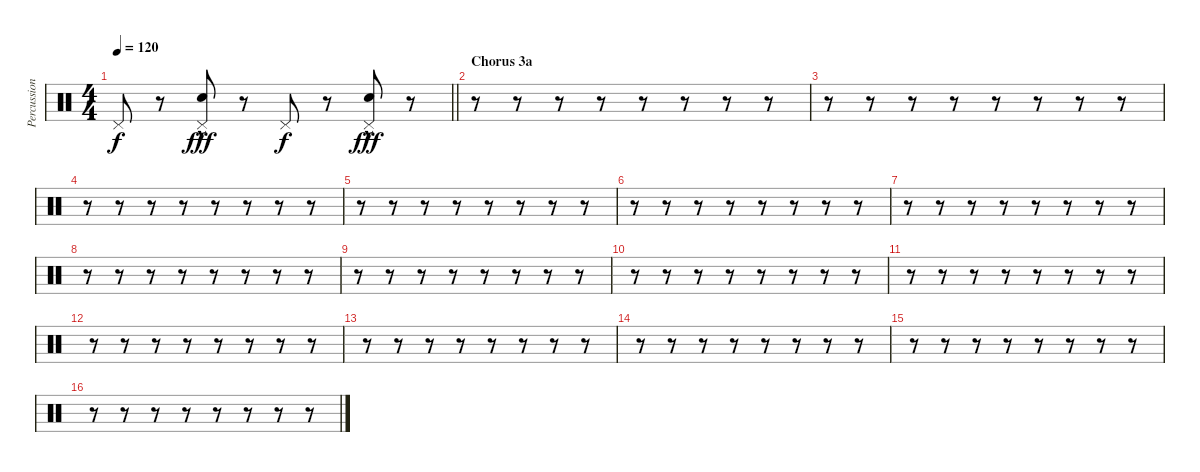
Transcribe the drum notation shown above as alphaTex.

\track ("Percussion" "Percussion") {instrument percussion}
\staff {score}
\articulation defaults
\ts (4 4)
\tempo 120
\clef neutral
\barLineRight lightlight
\ks c "Pedal Hi-Hat (hit)".8{dy f}
r.8 ("Snare (hit) 2"{hac} "Pedal Hi-Hat (hit)").8{dy fff} r.8 "Pedal Hi-Hat (hit)".8{dy f} r.8 ("Snare (hit) 2"{hac} "Pedal Hi-Hat (hit)").8{dy fff} r.8 |
\section ("" "Chorus 3a")
r.8 r.8 r.8 r.8 r.8 r.8 r.8 r.8 |
r.8 r.8 r.8 r.8 r.8 r.8 r.8 r.8 |
r.8 r.8 r.8 r.8 r.8 r.8 r.8 r.8 |
r.8 r.8 r.8 r.8 r.8 r.8 r.8 r.8 |
r.8 r.8 r.8 r.8 r.8 r.8 r.8 r.8 |
r.8 r.8 r.8 r.8 r.8 r.8 r.8 r.8 |
r.8 r.8 r.8 r.8 r.8 r.8 r.8 r.8 |
r.8 r.8 r.8 r.8 r.8 r.8 r.8 r.8 |
r.8 r.8 r.8 r.8 r.8 r.8 r.8 r.8 |
r.8 r.8 r.8 r.8 r.8 r.8 r.8 r.8 |
r.8 r.8 r.8 r.8 r.8 r.8 r.8 r.8 |
r.8 r.8 r.8 r.8 r.8 r.8 r.8 r.8 |
r.8 r.8 r.8 r.8 r.8 r.8 r.8 r.8 |
r.8 r.8 r.8 r.8 r.8 r.8 r.8 r.8 |
r.8 r.8 r.8 r.8 r.8 r.8 r.8 r.8
